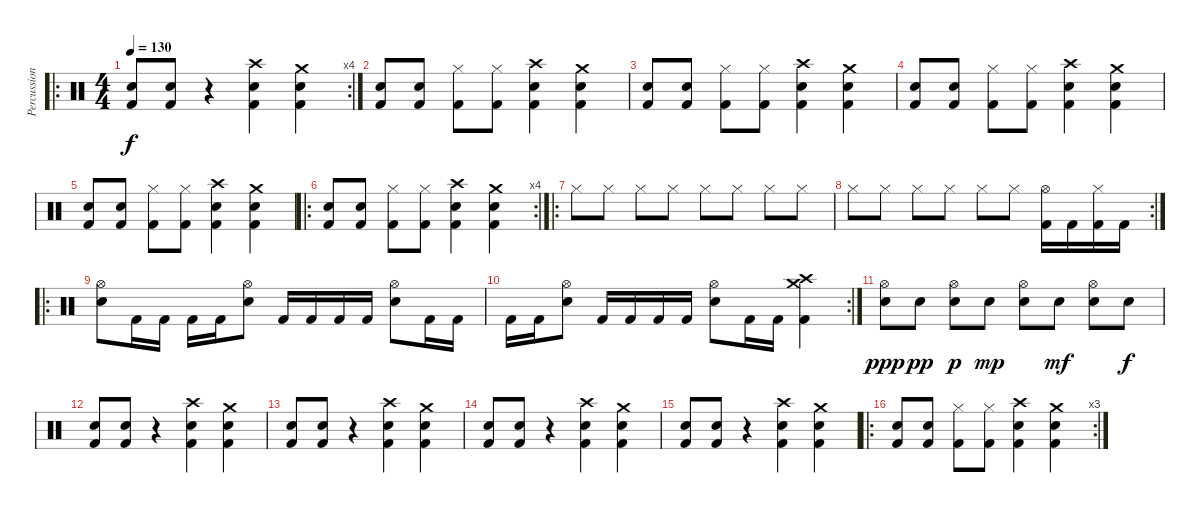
\track ("Percussioni" "Percussion") {instrument percussion}
\staff {score}
\articulation defaults
\ro
\rc 4
\ts (4 4)
\tempo 130
\clef neutral
\ks c
("Electric Snare (hit)" "Kick (hit) 2").8{dy f} ("Electric Snare (hit)" "Kick (hit) 2").8 r.4 ("Crash high (hit)" "Electric Snare (hit)" "Kick (hit) 2").4 ("Crash medium (hit)" "Electric Snare (hit)" "Kick (hit) 2").4 |
("Electric Snare (hit)" "Kick (hit) 2").8 ("Electric Snare (hit)" "Kick (hit) 2").8 ("Kick (hit) 2" "Hi-Hat (closed)").8 ("Kick (hit) 2" "Hi-Hat (closed)").8 ("Crash high (hit)" "Electric Snare (hit)" "Kick (hit) 2").4 ("Crash medium (hit)" "Electric Snare (hit)" "Kick (hit) 2").4 |
("Electric Snare (hit)" "Kick (hit) 2").8 ("Electric Snare (hit)" "Kick (hit) 2").8 ("Kick (hit) 2" "Hi-Hat (closed)").8 ("Kick (hit) 2" "Hi-Hat (closed)").8 ("Crash high (hit)" "Electric Snare (hit)" "Kick (hit) 2").4 ("Crash medium (hit)" "Electric Snare (hit)" "Kick (hit) 2").4 |
("Electric Snare (hit)" "Kick (hit) 2").8 ("Electric Snare (hit)" "Kick (hit) 2").8 ("Kick (hit) 2" "Hi-Hat (closed)").8 ("Kick (hit) 2" "Hi-Hat (closed)").8 ("Crash high (hit)" "Electric Snare (hit)" "Kick (hit) 2").4 ("Crash medium (hit)" "Electric Snare (hit)" "Kick (hit) 2").4 |
("Electric Snare (hit)" "Kick (hit) 2").8 ("Electric Snare (hit)" "Kick (hit) 2").8 ("Kick (hit) 2" "Hi-Hat (closed)").8 ("Kick (hit) 2" "Hi-Hat (closed)").8 ("Crash high (hit)" "Electric Snare (hit)" "Kick (hit) 2").4 ("Crash medium (hit)" "Electric Snare (hit)" "Kick (hit) 2").4 |
\ro
\rc 4
("Electric Snare (hit)" "Kick (hit) 2").8 ("Electric Snare (hit)" "Kick (hit) 2").8 ("Kick (hit) 2" "Hi-Hat (closed)").8 ("Kick (hit) 2" "Hi-Hat (closed)").8 ("Crash high (hit)" "Electric Snare (hit)" "Kick (hit) 2").4 ("Crash medium (hit)" "Electric Snare (hit)" "Kick (hit) 2").4 |
\ro "Hi-Hat (closed)".8 "Hi-Hat (closed)".8 "Hi-Hat (closed)".8 "Hi-Hat (closed)".8 "Hi-Hat (closed)".8 "Hi-Hat (closed)".8 "Hi-Hat (closed)".8 "Hi-Hat (closed)".8
|
\rc 2 "Hi-Hat (closed)".8 "Hi-Hat (closed)".8 "Hi-Hat (closed)".8 "Hi-Hat (closed)".8 "Hi-Hat (closed)".8 "Hi-Hat (closed)".8
("Hi-Hat (open)" "Kick (hit) 2").16 "Kick (hit) 2".16 ("Hi-Hat (closed)" "Kick (hit) 2").16 "Kick (hit) 2".16 |
\ro
("Hi-Hat (open)" "Electric Snare (hit)").8 "Kick (hit) 2".16 "Kick (hit) 2".16 "Kick (hit) 2".16 "Kick (hit) 2".16 ("Hi-Hat (open)" "Electric Snare (hit)").8 "Kick (hit) 2".16 "Kick (hit) 2".16 "Kick (hit) 2".16 "Kick (hit) 2".16 ("Hi-Hat (open)" "Electric Snare (hit)").8 "Kick (hit) 2".16 "Kick (hit) 2".16 |
\rc 2 "Kick (hit) 2".16 "Kick (hit) 2".16
("Hi-Hat (open)" "Electric Snare (hit)").8 "Kick (hit) 2".16 "Kick (hit) 2".16 "Kick (hit) 2".16 "Kick (hit) 2".16 ("Hi-Hat (open)" "Electric Snare (hit)").8 "Kick (hit) 2".16 "Kick (hit) 2".16 ("Crash medium (hit)" "Crash high (hit)" "Kick (hit) 2").4 |
("Hi-Hat (open)" "Electric Snare (hit)").8{dy ppp} "Electric Snare (hit)".8{dy pp} ("Hi-Hat (open)" "Electric Snare (hit)").8{dy p} "Electric Snare (hit)".8{dy mp} ("Hi-Hat (open)" "Electric Snare (hit)").8 "Electric Snare (hit)".8{dy mf} ("Hi-Hat (open)" "Electric Snare (hit)").8 "Electric Snare (hit)".8{dy f} |
("Electric Snare (hit)" "Kick (hit) 2").8 ("Electric Snare (hit)" "Kick (hit) 2").8 r.4 ("Crash high (hit)" "Electric Snare (hit)" "Kick (hit) 2").4 ("Crash medium (hit)" "Electric Snare (hit)" "Kick (hit) 2").4 |
("Electric Snare (hit)" "Kick (hit) 2").8 ("Electric Snare (hit)" "Kick (hit) 2").8 r.4 ("Crash high (hit)" "Electric Snare (hit)" "Kick (hit) 2").4 ("Crash medium (hit)" "Electric Snare (hit)" "Kick (hit) 2").4 |
("Electric Snare (hit)" "Kick (hit) 2").8 ("Electric Snare (hit)" "Kick (hit) 2").8 r.4 ("Crash high (hit)" "Electric Snare (hit)" "Kick (hit) 2").4 ("Crash medium (hit)" "Electric Snare (hit)" "Kick (hit) 2").4 |
("Electric Snare (hit)" "Kick (hit) 2").8 ("Electric Snare (hit)" "Kick (hit) 2").8 r.4 ("Crash high (hit)" "Electric Snare (hit)" "Kick (hit) 2").4 ("Crash medium (hit)" "Electric Snare (hit)" "Kick (hit) 2").4 |
\ro
\rc 3
("Electric Snare (hit)" "Kick (hit) 2").8 ("Electric Snare (hit)" "Kick (hit) 2").8 ("Kick (hit) 2" "Hi-Hat (closed)").8 ("Kick (hit) 2" "Hi-Hat (closed)").8 ("Crash high (hit)" "Electric Snare (hit)" "Kick (hit) 2").4 ("Crash medium (hit)" "Electric Snare (hit)" "Kick (hit) 2").4
